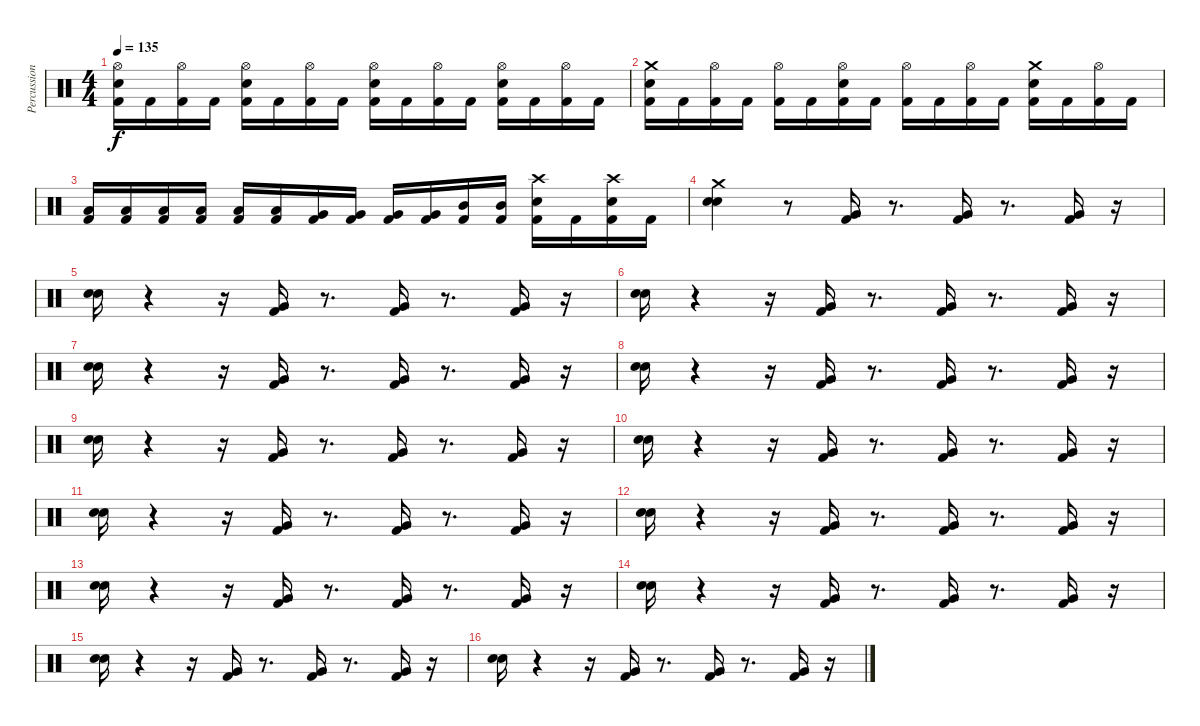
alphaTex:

\track ("Percussion" "Percussion") {instrument percussion}
\staff {score}
\articulation defaults
\ts (4 4)
\tempo 135
\clef neutral
\ks c
("Kick (hit) 2" "Electric Snare (hit)" "Hi-Hat (open)").16{dy f} "Kick (hit) 2".16 ("Kick (hit) 2" "Hi-Hat (open)").16 "Kick (hit) 2".16 ("Kick (hit) 2" "Electric Snare (hit)" "Hi-Hat (open)").16 "Kick (hit) 2".16 ("Kick (hit) 2" "Hi-Hat (open)").16 "Kick (hit) 2".16 ("Kick (hit) 2" "Electric Snare (hit)" "Hi-Hat (open)").16 "Kick (hit) 2".16 ("Kick (hit) 2" "Hi-Hat (open)").16 "Kick (hit) 2".16 ("Kick (hit) 2" "Electric Snare (hit)" "Hi-Hat (open)").16 "Kick (hit) 2".16 ("Kick (hit) 2" "Hi-Hat (open)").16 "Kick (hit) 2".16 |
("Kick (hit) 2" "Electric Snare (hit)" "Crash medium (hit)").16 "Kick (hit) 2".16 ("Kick (hit) 2" "Hi-Hat (open)").16 "Kick (hit) 2".16 ("Kick (hit) 2" "Hi-Hat (open)").16 "Kick (hit) 2".16 ("Kick (hit) 2" "Electric Snare (hit)" "Hi-Hat (open)").16 "Kick (hit) 2".16 ("Kick (hit) 2" "Hi-Hat (open)").16 "Kick (hit) 2".16 ("Kick (hit) 2" "Hi-Hat (open)").16 "Kick (hit) 2".16 ("Kick (hit) 2" "Electric Snare (hit)" "Crash medium (hit)").16 "Kick (hit) 2".16 ("Kick (hit) 2" "Hi-Hat (open)").16 "Kick (hit) 2".16 |
("Kick (hit) 2" "Low Floor Tom (hit)").16 ("Kick (hit) 2" "Low Floor Tom (hit)").16 ("Kick (hit) 2" "Low Floor Tom (hit)").16 ("Kick (hit) 2" "Low Floor Tom (hit)").16 ("Kick (hit) 2" "Low Tom (hit)").16 ("Kick (hit) 2" "Low Tom (hit)").16 ("Kick (hit) 2" "Very Low Tom (hit)").16 ("Kick (hit) 2" "Very Low Tom (hit)").16 ("Kick (hit) 2" "Very Low Tom (hit)").16 ("Kick (hit) 2" "Very Low Tom (hit)").16 ("Kick (hit) 2" "Mid Tom (hit)").16 ("Kick (hit) 2" "Mid Tom (hit)").16 ("Kick (hit) 2" "Electric Snare (hit)" "Crash high (hit)").16 "Kick (hit) 2".16 ("Kick (hit) 2" "Electric Snare (hit)" "Crash high (hit)").16 "Kick (hit) 2".16 |
("Snare (hit) 2" "Electric Snare (hit)" "Crash medium (hit)").4 r.8 ("Kick (hit) 2" "Very Low Tom (hit)").16 r.8{d} ("Kick (hit) 2" "Very Low Tom (hit)").16 r.8{d} ("Kick (hit) 2" "Very Low Tom (hit)").16 r.16 |
("Snare (hit) 2" "Electric Snare (hit)").16 r.4 r.16 ("Kick (hit) 2" "Very Low Tom (hit)").16 r.8{d} ("Kick (hit) 2" "Very Low Tom (hit)").16 r.8{d} ("Kick (hit) 2" "Very Low Tom (hit)").16 r.16 |
("Snare (hit) 2" "Electric Snare (hit)").16 r.4 r.16 ("Kick (hit) 2" "Very Low Tom (hit)").16 r.8{d} ("Kick (hit) 2" "Very Low Tom (hit)").16 r.8{d} ("Kick (hit) 2" "Very Low Tom (hit)").16 r.16 |
("Snare (hit) 2" "Electric Snare (hit)").16 r.4 r.16 ("Kick (hit) 2" "Very Low Tom (hit)").16 r.8{d} ("Kick (hit) 2" "Very Low Tom (hit)").16 r.8{d} ("Kick (hit) 2" "Very Low Tom (hit)").16 r.16 |
("Snare (hit) 2" "Electric Snare (hit)").16 r.4 r.16 ("Kick (hit) 2" "Very Low Tom (hit)").16 r.8{d} ("Kick (hit) 2" "Very Low Tom (hit)").16 r.8{d} ("Kick (hit) 2" "Very Low Tom (hit)").16 r.16 |
("Snare (hit) 2" "Electric Snare (hit)").16 r.4 r.16 ("Kick (hit) 2" "Very Low Tom (hit)").16 r.8{d} ("Kick (hit) 2" "Very Low Tom (hit)").16 r.8{d} ("Kick (hit) 2" "Very Low Tom (hit)").16 r.16 |
("Snare (hit) 2" "Electric Snare (hit)").16 r.4 r.16 ("Kick (hit) 2" "Very Low Tom (hit)").16 r.8{d} ("Kick (hit) 2" "Very Low Tom (hit)").16 r.8{d} ("Kick (hit) 2" "Very Low Tom (hit)").16 r.16 |
("Snare (hit) 2" "Electric Snare (hit)").16 r.4 r.16 ("Kick (hit) 2" "Very Low Tom (hit)").16 r.8{d} ("Kick (hit) 2" "Very Low Tom (hit)").16 r.8{d} ("Kick (hit) 2" "Very Low Tom (hit)").16 r.16 |
("Snare (hit) 2" "Electric Snare (hit)").16 r.4 r.16 ("Kick (hit) 2" "Very Low Tom (hit)").16 r.8{d} ("Kick (hit) 2" "Very Low Tom (hit)").16 r.8{d} ("Kick (hit) 2" "Very Low Tom (hit)").16 r.16 |
("Snare (hit) 2" "Electric Snare (hit)").16 r.4 r.16 ("Kick (hit) 2" "Very Low Tom (hit)").16 r.8{d} ("Kick (hit) 2" "Very Low Tom (hit)").16 r.8{d} ("Kick (hit) 2" "Very Low Tom (hit)").16 r.16 |
("Snare (hit) 2" "Electric Snare (hit)").16 r.4 r.16 ("Kick (hit) 2" "Very Low Tom (hit)").16 r.8{d} ("Kick (hit) 2" "Very Low Tom (hit)").16 r.8{d} ("Kick (hit) 2" "Very Low Tom (hit)").16 r.16 |
("Snare (hit) 2" "Electric Snare (hit)").16 r.4 r.16 ("Kick (hit) 2" "Very Low Tom (hit)").16 r.8{d} ("Kick (hit) 2" "Very Low Tom (hit)").16 r.8{d} ("Kick (hit) 2" "Very Low Tom (hit)").16 r.16 |
("Snare (hit) 2" "Electric Snare (hit)").16 r.4 r.16 ("Kick (hit) 2" "Very Low Tom (hit)").16 r.8{d} ("Kick (hit) 2" "Very Low Tom (hit)").16 r.8{d} ("Kick (hit) 2" "Very Low Tom (hit)").16 r.16
